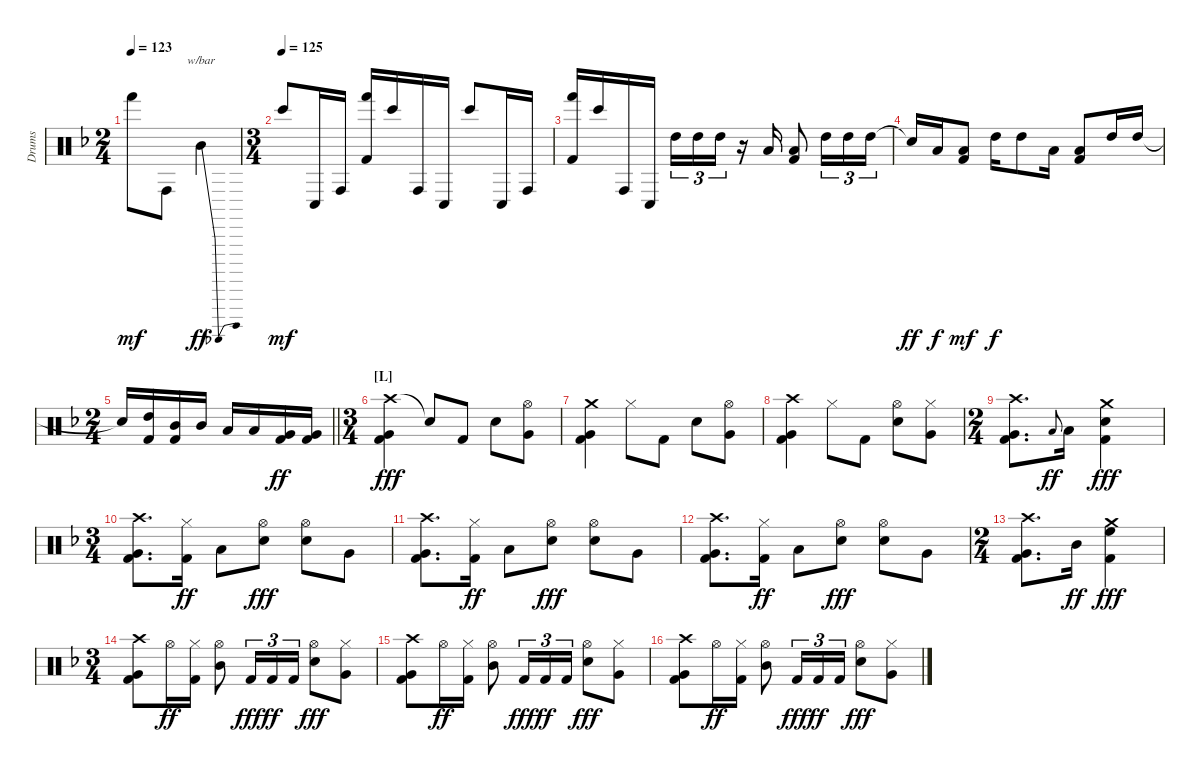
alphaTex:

\track ("Drums" "Drums") {instrument percussion}
\staff {score}
\articulation defaults
\ts (2 4)
\tempo 123
\clef neutral
\ks dminor "Hand (hit)".8{dy mf} "Conga high (hit)".8 "Mid Tom (hit)".4{tbe (dip default 0 0 30 -12 60 0) dy ff}
|
\ts (3 4)
\tempo (125)
"Bongo High (hit)".8{dy mf} "Conga low (hit)".16 "Conga high (hit)".16 ("Hand (hit)" "Kick (hit) 2").16 "Bongo High (hit)".16 "Conga high (hit)".16 "Conga low (hit)".16 "Bongo High (hit)".8 "Conga low (hit)".16 "Conga high (hit)".16 |
("Hand (hit)" "Kick (hit) 2").16 "Bongo High (hit)".16 "Conga high (hit)".16 "Conga low (hit)".16 "High Tom (hit)".16{tu (3 2)} "High Tom (hit)".16{tu (3 2)} "High Tom (hit)".16{tu (3 2)} r.16 "Low Tom (hit)".16 ("Low Tom (hit)" "Kick (hit) 2").8 "High Tom (hit)".16{tu (3 2)} "High Tom (hit)".16{tu (3 2)} "High Tom (hit)".16{tu (3 2)} |
"Snare (hit)"{t}.16{dy ff} "Low Tom (hit)".16{dy f} ("Low Tom (hit)" "Kick (hit) 2").8{dy mf} "High Tom (hit)".16{dy f} "High Tom (hit)".8 "Low Tom (hit)".16 ("Low Tom (hit)" "Kick (hit) 2").8 "High Tom (hit)".16 "High Tom (hit)".16 |
\ts (2 4)
\barLineRight lightlight "Snare (hit)"{t}.16
("High Tom (hit)" "Kick (hit) 2").16 ("Mid Tom (hit)" "Kick (hit) 2").16 "Mid Tom (hit)".16 "Low Tom (hit)".16 "Low Tom (hit)".16 ("Very Low Tom (hit)" "Kick (hit) 2").16{dy ff} ("Very Low Tom (hit)" "Kick (hit) 2").16 |
\ts (3 4)
\section ("" "[L]")
("Crash high (hit)" "Very Low Tom (hit)" "Kick (hit) 2").4{dy fff} "Snare (hit)"{t}.8 "Kick (hit) 2".8 "Snare (hit) 2".8 ("Hi-Hat (open)" "Very Low Tom (hit)").8 |
("Crash medium (hit)" "Very Low Tom (hit)" "Kick (hit) 2").4 "Hi-Hat (closed)".8 "Kick (hit) 2".8 "Snare (hit) 2".8 ("Hi-Hat (open)" "Very Low Tom (hit)").8 |
("Crash high (hit)" "Very Low Tom (hit)" "Kick (hit) 2").4 "Hi-Hat (closed)".8 "Kick (hit) 2".8 ("Hi-Hat (open)" "Snare (hit) 2").8 ("Hi-Hat (closed)" "Very Low Tom (hit)").8 |
\ts (2 4)
("Crash high (hit)" "Very Low Tom (hit)" "Kick (hit) 2").8{d} "Low Tom (hit)".8{gr onbeat dy ff} "Low Tom (hit)".16 ("Crash medium (hit)" "Snare (hit) 2" "Kick (hit) 2").4{dy fff} |
\ts (3 4)
("Crash high (hit)" "Very Low Tom (hit)" "Kick (hit) 2").8{d} ("Hi-Hat (closed)" "Kick (hit) 2").16{dy ff} "Low Tom (hit)".8 ("Hi-Hat (open)" "Snare (hit) 2").8{dy fff} ("Hi-Hat (open)" "Snare (hit) 2").8 "Very Low Tom (hit)".8 |
("Crash high (hit)" "Very Low Tom (hit)" "Kick (hit) 2").8{d} ("Hi-Hat (closed)" "Kick (hit) 2").16{dy ff} "Low Tom (hit)".8 ("Hi-Hat (open)" "Snare (hit) 2").8{dy fff} ("Hi-Hat (open)" "Snare (hit) 2").8 "Very Low Tom (hit)".8 |
("Crash high (hit)" "Very Low Tom (hit)" "Kick (hit) 2").8{d} ("Hi-Hat (closed)" "Kick (hit) 2").16{dy ff} "Low Tom (hit)".8 ("Hi-Hat (open)" "Snare (hit) 2").8{dy fff} ("Hi-Hat (open)" "Snare (hit) 2").8 "Very Low Tom (hit)".8 |
\ts (2 4)
("Crash high (hit)" "Very Low Tom (hit)" "Kick (hit) 2").8{d} "Mid Tom (hit)".16{dy ff} ("Crash medium (hit)" "High Floor Tom (hit)" "Kick (hit) 2").4{dy fff} |
\ts (3 4)
("Crash high (hit)" "Very Low Tom (hit)" "Kick (hit) 2").8 "Hi-Hat (open)".16{dy ff} ("Hi-Hat (closed)" "Kick (hit) 2").16 ("Hi-Hat (open)" "Mid Tom (hit)").8 "Kick (hit) 2".16{tu (3 2) dy fff} "Kick (hit) 2".16{tu (3 2) dy ff} "Kick (hit) 2".16{tu (3 2)} ("Hi-Hat (open)" "Snare (hit) 2").8{dy fff} ("Hi-Hat (closed)" "Very Low Tom (hit)").8 |
("Crash high (hit)" "Very Low Tom (hit)" "Kick (hit) 2").8 "Hi-Hat (open)".16{dy ff} ("Hi-Hat (closed)" "Kick (hit) 2").16 ("Hi-Hat (open)" "Mid Tom (hit)").8 "Kick (hit) 2".16{tu (3 2) dy fff} "Kick (hit) 2".16{tu (3 2) dy ff} "Kick (hit) 2".16{tu (3 2)} ("Hi-Hat (open)" "Snare (hit) 2").8{dy fff} ("Hi-Hat (closed)" "Very Low Tom (hit)").8 |
("Crash high (hit)" "Very Low Tom (hit)" "Kick (hit) 2").8 "Hi-Hat (open)".16{dy ff} ("Hi-Hat (closed)" "Kick (hit) 2").16 ("Hi-Hat (open)" "Mid Tom (hit)").8 "Kick (hit) 2".16{tu (3 2) dy fff} "Kick (hit) 2".16{tu (3 2) dy ff} "Kick (hit) 2".16{tu (3 2)} ("Hi-Hat (open)" "Snare (hit) 2").8{dy fff} ("Hi-Hat (closed)" "Very Low Tom (hit)").8
